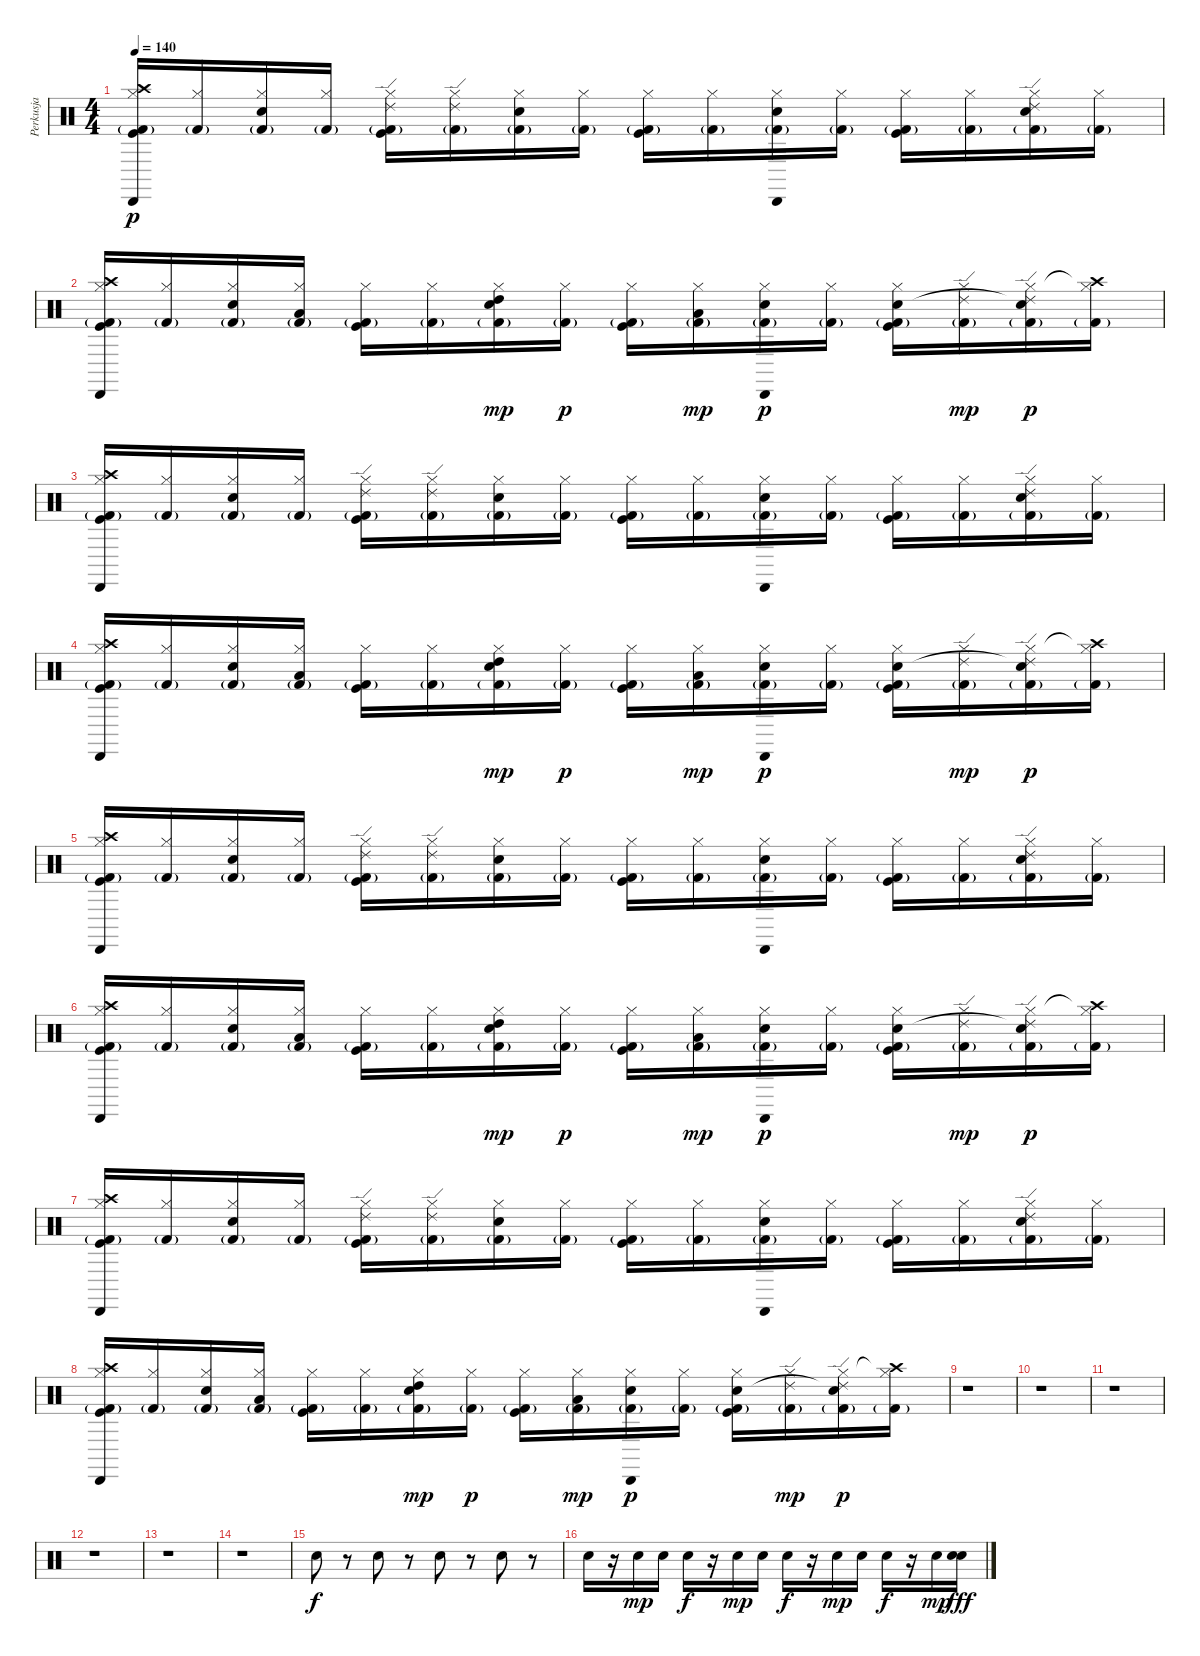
\track ("Perkusja" "Perkusja") {instrument percussion}
\staff {score}
\articulation defaults
\ts (4 4)
\tempo 140
\clef neutral
\ks c
("Kick (hit) 2"{g} "Kick (hit)" "Hi-Hat (closed)" "Crash high (hit)" "Cabasa (hit)").16{dy p} ("Kick (hit) 2"{g} "Hi-Hat (closed)").16 ("Kick (hit) 2"{g} "Snare (hit) 2" "Hi-Hat (closed)").16 ("Kick (hit) 2"{g} "Hi-Hat (closed)").16 ("Kick (hit) 2"{g} "Kick (hit)" "Hi-Hat (closed)" "Ride (edge) 2").16 ("Kick (hit) 2"{g} "Hi-Hat (closed)" "Ride (edge) 2").16 ("Kick (hit) 2"{g} "Snare (hit) 2" "Hi-Hat (closed)").16 ("Kick (hit) 2"{g} "Hi-Hat (closed)").16 ("Kick (hit) 2"{g} "Kick (hit)" "Hi-Hat (closed)").16 ("Kick (hit) 2"{g} "Hi-Hat (closed)").16 ("Kick (hit) 2"{g} "Snare (hit) 2" "Hi-Hat (closed)" "Cabasa (hit)").16 ("Kick (hit) 2"{g} "Hi-Hat (closed)").16 ("Kick (hit) 2"{g} "Kick (hit)" "Hi-Hat (closed)").16 ("Kick (hit) 2"{g} "Hi-Hat (closed)").16 ("Kick (hit) 2"{g} "Snare (hit) 2" "Hi-Hat (closed)" "Ride (edge) 2").16 ("Kick (hit) 2"{g} "Hi-Hat (closed)").16 |
("Kick (hit) 2"{g} "Kick (hit)" "Hi-Hat (closed)" "Crash high (hit)" "Cabasa (hit)").16 ("Kick (hit) 2"{g} "Hi-Hat (closed)").16 ("Kick (hit) 2"{g} "Snare (hit) 2" "Hi-Hat (closed)").16 ("Kick (hit) 2"{g} "Hi-Hat (closed)" "Low Tom (hit)").16 ("Kick (hit) 2"{g} "Kick (hit)" "Hi-Hat (closed)").16 ("Kick (hit) 2"{g} "Hi-Hat (closed)").16 ("Kick (hit) 2"{g} "Snare (hit) 2" "Hi-Hat (closed)" "High Tom (hit)").16{dy mp} ("Kick (hit) 2"{g} "Hi-Hat (closed)").16{dy p} ("Kick (hit) 2"{g} "Kick (hit)" "Hi-Hat (closed)").16 ("Kick (hit) 2"{g} "Hi-Hat (closed)" "Low Tom (hit)").16{dy mp} ("Kick (hit) 2"{g} "Snare (hit) 2" "Hi-Hat (closed)" "Cabasa (hit)").16{dy p} ("Kick (hit) 2"{g} "Hi-Hat (closed)").16 ("Kick (hit) 2"{g} "Kick (hit)" "Hi-Hat (closed)" "Electric Snare (hit)").16 ("Kick (hit) 2"{g} "Hi-Hat (closed)" "Ride (edge) 2").16{dy mp} ("Kick (hit) 2"{g} "Snare (hit) 2" "Hi-Hat (closed)" "Ride (edge) 2"{t}).16{dy p} ("Kick (hit) 2"{g} "Hi-Hat (closed)" "Crash high (hit)"{t}).16 |
("Kick (hit) 2"{g} "Kick (hit)" "Hi-Hat (closed)" "Crash high (hit)" "Cabasa (hit)").16 ("Kick (hit) 2"{g} "Hi-Hat (closed)").16 ("Kick (hit) 2"{g} "Snare (hit) 2" "Hi-Hat (closed)").16 ("Kick (hit) 2"{g} "Hi-Hat (closed)").16 ("Kick (hit) 2"{g} "Kick (hit)" "Hi-Hat (closed)" "Ride (edge) 2").16 ("Kick (hit) 2"{g} "Hi-Hat (closed)" "Ride (edge) 2").16 ("Kick (hit) 2"{g} "Snare (hit) 2" "Hi-Hat (closed)").16 ("Kick (hit) 2"{g} "Hi-Hat (closed)").16 ("Kick (hit) 2"{g} "Kick (hit)" "Hi-Hat (closed)").16 ("Kick (hit) 2"{g} "Hi-Hat (closed)").16 ("Kick (hit) 2"{g} "Snare (hit) 2" "Hi-Hat (closed)" "Cabasa (hit)").16 ("Kick (hit) 2"{g} "Hi-Hat (closed)").16 ("Kick (hit) 2"{g} "Kick (hit)" "Hi-Hat (closed)").16 ("Kick (hit) 2"{g} "Hi-Hat (closed)").16 ("Kick (hit) 2"{g} "Snare (hit) 2" "Hi-Hat (closed)" "Ride (edge) 2").16 ("Kick (hit) 2"{g} "Hi-Hat (closed)").16 |
("Kick (hit) 2"{g} "Kick (hit)" "Hi-Hat (closed)" "Crash high (hit)" "Cabasa (hit)").16 ("Kick (hit) 2"{g} "Hi-Hat (closed)").16 ("Kick (hit) 2"{g} "Snare (hit) 2" "Hi-Hat (closed)").16 ("Kick (hit) 2"{g} "Hi-Hat (closed)" "Low Tom (hit)").16 ("Kick (hit) 2"{g} "Kick (hit)" "Hi-Hat (closed)").16 ("Kick (hit) 2"{g} "Hi-Hat (closed)").16 ("Kick (hit) 2"{g} "Snare (hit) 2" "Hi-Hat (closed)" "High Tom (hit)").16{dy mp} ("Kick (hit) 2"{g} "Hi-Hat (closed)").16{dy p} ("Kick (hit) 2"{g} "Kick (hit)" "Hi-Hat (closed)").16 ("Kick (hit) 2"{g} "Hi-Hat (closed)" "Low Tom (hit)").16{dy mp} ("Kick (hit) 2"{g} "Snare (hit) 2" "Hi-Hat (closed)" "Cabasa (hit)").16{dy p} ("Kick (hit) 2"{g} "Hi-Hat (closed)").16 ("Kick (hit) 2"{g} "Kick (hit)" "Hi-Hat (closed)" "Electric Snare (hit)").16 ("Kick (hit) 2"{g} "Hi-Hat (closed)" "Ride (edge) 2").16{dy mp} ("Kick (hit) 2"{g} "Snare (hit) 2" "Hi-Hat (closed)" "Ride (edge) 2"{t}).16{dy p} ("Kick (hit) 2"{g} "Hi-Hat (closed)" "Crash high (hit)"{t}).16 |
("Kick (hit) 2"{g} "Kick (hit)" "Hi-Hat (closed)" "Crash high (hit)" "Cabasa (hit)").16 ("Kick (hit) 2"{g} "Hi-Hat (closed)").16 ("Kick (hit) 2"{g} "Snare (hit) 2" "Hi-Hat (closed)").16 ("Kick (hit) 2"{g} "Hi-Hat (closed)").16 ("Kick (hit) 2"{g} "Kick (hit)" "Hi-Hat (closed)" "Ride (edge) 2").16 ("Kick (hit) 2"{g} "Hi-Hat (closed)" "Ride (edge) 2").16 ("Kick (hit) 2"{g} "Snare (hit) 2" "Hi-Hat (closed)").16 ("Kick (hit) 2"{g} "Hi-Hat (closed)").16 ("Kick (hit) 2"{g} "Kick (hit)" "Hi-Hat (closed)").16 ("Kick (hit) 2"{g} "Hi-Hat (closed)").16 ("Kick (hit) 2"{g} "Snare (hit) 2" "Hi-Hat (closed)" "Cabasa (hit)").16 ("Kick (hit) 2"{g} "Hi-Hat (closed)").16 ("Kick (hit) 2"{g} "Kick (hit)" "Hi-Hat (closed)").16 ("Kick (hit) 2"{g} "Hi-Hat (closed)").16 ("Kick (hit) 2"{g} "Snare (hit) 2" "Hi-Hat (closed)" "Ride (edge) 2").16 ("Kick (hit) 2"{g} "Hi-Hat (closed)").16 |
("Kick (hit) 2"{g} "Kick (hit)" "Hi-Hat (closed)" "Crash high (hit)" "Cabasa (hit)").16 ("Kick (hit) 2"{g} "Hi-Hat (closed)").16 ("Kick (hit) 2"{g} "Snare (hit) 2" "Hi-Hat (closed)").16 ("Kick (hit) 2"{g} "Hi-Hat (closed)" "Low Tom (hit)").16 ("Kick (hit) 2"{g} "Kick (hit)" "Hi-Hat (closed)").16 ("Kick (hit) 2"{g} "Hi-Hat (closed)").16 ("Kick (hit) 2"{g} "Snare (hit) 2" "Hi-Hat (closed)" "High Tom (hit)").16{dy mp} ("Kick (hit) 2"{g} "Hi-Hat (closed)").16{dy p} ("Kick (hit) 2"{g} "Kick (hit)" "Hi-Hat (closed)").16 ("Kick (hit) 2"{g} "Hi-Hat (closed)" "Low Tom (hit)").16{dy mp} ("Kick (hit) 2"{g} "Snare (hit) 2" "Hi-Hat (closed)" "Cabasa (hit)").16{dy p} ("Kick (hit) 2"{g} "Hi-Hat (closed)").16 ("Kick (hit) 2"{g} "Kick (hit)" "Hi-Hat (closed)" "Electric Snare (hit)").16 ("Kick (hit) 2"{g} "Hi-Hat (closed)" "Ride (edge) 2").16{dy mp} ("Kick (hit) 2"{g} "Snare (hit) 2" "Hi-Hat (closed)" "Ride (edge) 2"{t}).16{dy p} ("Kick (hit) 2"{g} "Hi-Hat (closed)" "Crash high (hit)"{t}).16 |
("Kick (hit) 2"{g} "Kick (hit)" "Hi-Hat (closed)" "Crash high (hit)" "Cabasa (hit)").16 ("Kick (hit) 2"{g} "Hi-Hat (closed)").16 ("Kick (hit) 2"{g} "Snare (hit) 2" "Hi-Hat (closed)").16 ("Kick (hit) 2"{g} "Hi-Hat (closed)").16 ("Kick (hit) 2"{g} "Kick (hit)" "Hi-Hat (closed)" "Ride (edge) 2").16 ("Kick (hit) 2"{g} "Hi-Hat (closed)" "Ride (edge) 2").16 ("Kick (hit) 2"{g} "Snare (hit) 2" "Hi-Hat (closed)").16 ("Kick (hit) 2"{g} "Hi-Hat (closed)").16 ("Kick (hit) 2"{g} "Kick (hit)" "Hi-Hat (closed)").16 ("Kick (hit) 2"{g} "Hi-Hat (closed)").16 ("Kick (hit) 2"{g} "Snare (hit) 2" "Hi-Hat (closed)" "Cabasa (hit)").16 ("Kick (hit) 2"{g} "Hi-Hat (closed)").16 ("Kick (hit) 2"{g} "Kick (hit)" "Hi-Hat (closed)").16 ("Kick (hit) 2"{g} "Hi-Hat (closed)").16 ("Kick (hit) 2"{g} "Snare (hit) 2" "Hi-Hat (closed)" "Ride (edge) 2").16 ("Kick (hit) 2"{g} "Hi-Hat (closed)").16 |
("Kick (hit) 2"{g} "Kick (hit)" "Hi-Hat (closed)" "Crash high (hit)" "Cabasa (hit)").16 ("Kick (hit) 2"{g} "Hi-Hat (closed)").16 ("Kick (hit) 2"{g} "Snare (hit) 2" "Hi-Hat (closed)").16 ("Kick (hit) 2"{g} "Hi-Hat (closed)" "Low Tom (hit)").16 ("Kick (hit) 2"{g} "Kick (hit)" "Hi-Hat (closed)").16 ("Kick (hit) 2"{g} "Hi-Hat (closed)").16 ("Kick (hit) 2"{g} "Snare (hit) 2" "Hi-Hat (closed)" "High Tom (hit)").16{dy mp} ("Kick (hit) 2"{g} "Hi-Hat (closed)").16{dy p} ("Kick (hit) 2"{g} "Kick (hit)" "Hi-Hat (closed)").16 ("Kick (hit) 2"{g} "Hi-Hat (closed)" "Low Tom (hit)").16{dy mp} ("Kick (hit) 2"{g} "Snare (hit) 2" "Hi-Hat (closed)" "Cabasa (hit)").16{dy p} ("Kick (hit) 2"{g} "Hi-Hat (closed)").16 ("Kick (hit) 2"{g} "Kick (hit)" "Hi-Hat (closed)" "Electric Snare (hit)").16 ("Kick (hit) 2"{g} "Hi-Hat (closed)" "Ride (edge) 2").16{dy mp} ("Kick (hit) 2"{g} "Snare (hit) 2" "Hi-Hat (closed)" "Ride (edge) 2"{t}).16{dy p} ("Kick (hit) 2"{g} "Hi-Hat (closed)" "Crash high (hit)"{t}).16 |
r.1 |
r.1 |
r.1 |
r.1 |
r.1 |
r.1 |
"Snare (hit) 2".8{dy f} r.8 "Electric Snare (hit)".8 r.8 "Snare (hit) 2".8 r.8 "Electric Snare (hit)".8 r.8 |
"Snare (hit) 2".16 r.16 "Snare (hit) 2".16{dy mp} "Snare (hit) 2".16 "Electric Snare (hit)".16{dy f} r.16 "Snare (hit) 2".16{dy mp} "Snare (hit) 2".16 "Snare (hit) 2".16{dy f} r.16 "Snare (hit) 2".16{dy mp} "Snare (hit) 2".16 "Electric Snare (hit)".16{dy f} r.16 "Snare (hit) 2".16{dy mp} ("Snare (hit) 2" "Electric Snare (hit)").16{dy fff}
